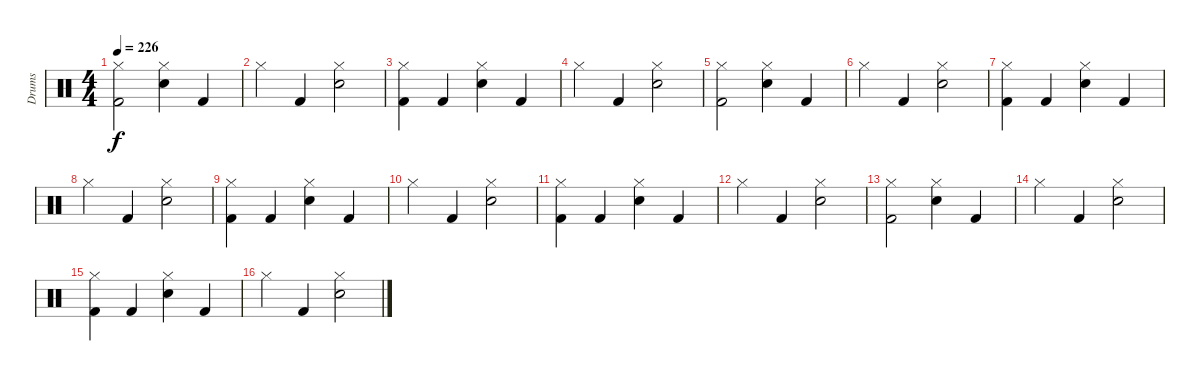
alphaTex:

\track ("Drums" "Drums") {instrument percussion}
\staff
\articulation defaults
\ts (4 4)
\tempo 226
\clef neutral
\ks c
("Hi-Hat (closed)" "Kick (hit) 2").2{dy f} ("Hi-Hat (closed)" "Snare (hit) 2").4 "Kick (hit) 2".4 |
"Hi-Hat (closed)".4 "Kick (hit) 2".4 ("Hi-Hat (closed)" "Snare (hit) 2").2 |
("Hi-Hat (closed)" "Kick (hit) 2").4 "Kick (hit) 2".4 ("Hi-Hat (closed)" "Snare (hit) 2").4 "Kick (hit) 2".4 |
"Hi-Hat (closed)".4 "Kick (hit) 2".4 ("Hi-Hat (closed)" "Snare (hit) 2").2 |
("Hi-Hat (closed)" "Kick (hit) 2").2 ("Hi-Hat (closed)" "Snare (hit) 2").4 "Kick (hit) 2".4 |
"Hi-Hat (closed)".4 "Kick (hit) 2".4 ("Hi-Hat (closed)" "Snare (hit) 2").2 |
("Hi-Hat (closed)" "Kick (hit) 2").4 "Kick (hit) 2".4 ("Hi-Hat (closed)" "Snare (hit) 2").4 "Kick (hit) 2".4 |
"Hi-Hat (closed)".4 "Kick (hit) 2".4 ("Hi-Hat (closed)" "Snare (hit) 2").2 |
("Hi-Hat (closed)" "Kick (hit) 2").4 "Kick (hit) 2".4 ("Hi-Hat (closed)" "Snare (hit) 2").4 "Kick (hit) 2".4 |
"Hi-Hat (closed)".4 "Kick (hit) 2".4 ("Hi-Hat (closed)" "Snare (hit) 2").2 |
("Hi-Hat (closed)" "Kick (hit) 2").4 "Kick (hit) 2".4 ("Hi-Hat (closed)" "Snare (hit) 2").4 "Kick (hit) 2".4 |
"Hi-Hat (closed)".4 "Kick (hit) 2".4 ("Hi-Hat (closed)" "Snare (hit) 2").2 |
("Hi-Hat (closed)" "Kick (hit) 2").2 ("Hi-Hat (closed)" "Snare (hit) 2").4 "Kick (hit) 2".4 |
"Hi-Hat (closed)".4 "Kick (hit) 2".4 ("Hi-Hat (closed)" "Snare (hit) 2").2 |
("Hi-Hat (closed)" "Kick (hit) 2").4 "Kick (hit) 2".4 ("Hi-Hat (closed)" "Snare (hit) 2").4 "Kick (hit) 2".4 |
"Hi-Hat (closed)".4 "Kick (hit) 2".4 ("Hi-Hat (closed)" "Snare (hit) 2").2
